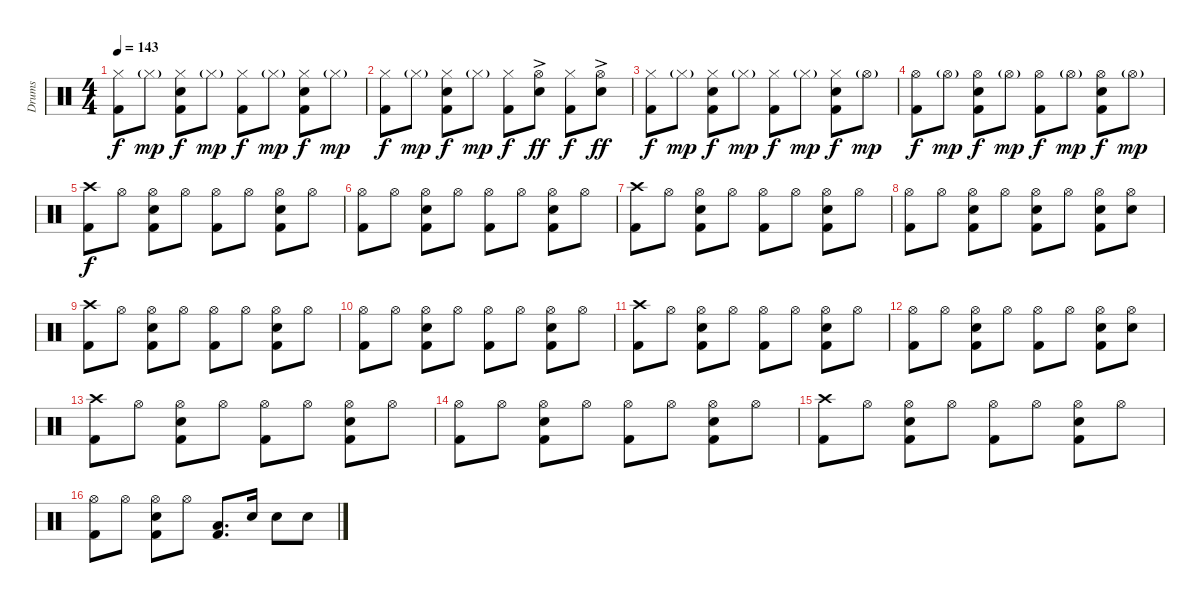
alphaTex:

\track ("Drums" "Drums") {instrument percussion}
\staff {score}
\articulation defaults
\ts (4 4)
\tempo 143
\clef neutral
\ks c
("Hi-Hat (closed)" "Kick (hit) 2").8{dy f} "Hi-Hat (closed)"{g}.8{dy mp} ("Hi-Hat (closed)" "Electric Snare (hit)" "Kick (hit) 2").8{dy f} "Hi-Hat (closed)"{g}.8{dy mp} ("Hi-Hat (closed)" "Kick (hit) 2").8{dy f} "Hi-Hat (closed)"{g}.8{dy mp} ("Hi-Hat (closed)" "Electric Snare (hit)" "Kick (hit) 2").8{dy f} "Hi-Hat (closed)"{g}.8{dy mp} |
("Hi-Hat (closed)" "Kick (hit) 2").8{dy f} "Hi-Hat (closed)"{g}.8{dy mp} ("Hi-Hat (closed)" "Electric Snare (hit)" "Kick (hit) 2").8{dy f} "Hi-Hat (closed)"{g}.8{dy mp} ("Hi-Hat (closed)" "Kick (hit) 2").8{dy f} ("Hi-Hat (open)"{ac} "Electric Snare (hit)").8{dy ff} ("Hi-Hat (closed)" "Kick (hit) 2").8{dy f} ("Hi-Hat (open)"{ac} "Electric Snare (hit)").8{dy ff} |
("Hi-Hat (closed)" "Kick (hit) 2").8{dy f} "Hi-Hat (closed)"{g}.8{dy mp} ("Hi-Hat (closed)" "Electric Snare (hit)" "Kick (hit) 2").8{dy f} "Hi-Hat (closed)"{g}.8{dy mp} ("Hi-Hat (closed)" "Kick (hit) 2").8{dy f} "Hi-Hat (closed)"{g}.8{dy mp} ("Hi-Hat (closed)" "Electric Snare (hit)" "Kick (hit) 2").8{dy f} "Hi-Hat (open)"{g}.8{dy mp} |
("Hi-Hat (open)" "Kick (hit) 2").8{dy f} "Hi-Hat (open)"{g}.8{dy mp} ("Hi-Hat (open)" "Electric Snare (hit)" "Kick (hit) 2").8{dy f} "Hi-Hat (open)"{g}.8{dy mp} ("Hi-Hat (open)" "Kick (hit) 2").8{dy f} "Hi-Hat (open)"{g}.8{dy mp} ("Hi-Hat (open)" "Electric Snare (hit)" "Kick (hit) 2").8{dy f} "Hi-Hat (open)"{g}.8{dy mp} |
("Crash high (hit)" "Kick (hit) 2").8{dy f} "Hi-Hat (open)".8 ("Hi-Hat (open)" "Electric Snare (hit)" "Kick (hit) 2").8 "Hi-Hat (open)".8 ("Hi-Hat (open)" "Kick (hit) 2").8 "Hi-Hat (open)".8 ("Hi-Hat (open)" "Electric Snare (hit)" "Kick (hit) 2").8 "Hi-Hat (open)".8 |
("Hi-Hat (open)" "Kick (hit) 2").8 "Hi-Hat (open)".8 ("Hi-Hat (open)" "Electric Snare (hit)" "Kick (hit) 2").8 "Hi-Hat (open)".8 ("Hi-Hat (open)" "Kick (hit) 2").8 "Hi-Hat (open)".8 ("Hi-Hat (open)" "Electric Snare (hit)" "Kick (hit) 2").8 "Hi-Hat (open)".8 |
("Crash high (hit)" "Kick (hit) 2").8 "Hi-Hat (open)".8 ("Hi-Hat (open)" "Electric Snare (hit)" "Kick (hit) 2").8 "Hi-Hat (open)".8 ("Hi-Hat (open)" "Kick (hit) 2").8 "Hi-Hat (open)".8 ("Hi-Hat (open)" "Electric Snare (hit)" "Kick (hit) 2").8 "Hi-Hat (open)".8 |
("Hi-Hat (open)" "Kick (hit) 2").8 "Hi-Hat (open)".8 ("Hi-Hat (open)" "Electric Snare (hit)" "Kick (hit) 2").8 "Hi-Hat (open)".8 ("Hi-Hat (open)" "Electric Snare (hit)" "Kick (hit) 2").8 "Hi-Hat (open)".8 ("Hi-Hat (open)" "Electric Snare (hit)" "Kick (hit) 2").8 ("Hi-Hat (open)" "Electric Snare (hit)").8 |
("Crash high (hit)" "Kick (hit) 2").8 "Hi-Hat (open)".8 ("Hi-Hat (open)" "Electric Snare (hit)" "Kick (hit) 2").8 "Hi-Hat (open)".8 ("Hi-Hat (open)" "Kick (hit) 2").8 "Hi-Hat (open)".8 ("Hi-Hat (open)" "Electric Snare (hit)" "Kick (hit) 2").8 "Hi-Hat (open)".8 |
("Hi-Hat (open)" "Kick (hit) 2").8 "Hi-Hat (open)".8 ("Hi-Hat (open)" "Electric Snare (hit)" "Kick (hit) 2").8 "Hi-Hat (open)".8 ("Hi-Hat (open)" "Kick (hit) 2").8 "Hi-Hat (open)".8 ("Hi-Hat (open)" "Electric Snare (hit)" "Kick (hit) 2").8 "Hi-Hat (open)".8 |
("Crash high (hit)" "Kick (hit) 2").8 "Hi-Hat (open)".8 ("Hi-Hat (open)" "Electric Snare (hit)" "Kick (hit) 2").8 "Hi-Hat (open)".8 ("Hi-Hat (open)" "Kick (hit) 2").8 "Hi-Hat (open)".8 ("Hi-Hat (open)" "Electric Snare (hit)" "Kick (hit) 2").8 "Hi-Hat (open)".8 |
("Hi-Hat (open)" "Kick (hit) 2").8 "Hi-Hat (open)".8 ("Hi-Hat (open)" "Electric Snare (hit)" "Kick (hit) 2").8 "Hi-Hat (open)".8 ("Hi-Hat (open)" "Kick (hit) 2").8 "Hi-Hat (open)".8 ("Hi-Hat (open)" "Electric Snare (hit)" "Kick (hit) 2").8 ("Hi-Hat (open)" "Electric Snare (hit)").8 |
("Crash high (hit)" "Kick (hit) 2").8 "Hi-Hat (open)".8 ("Hi-Hat (open)" "Electric Snare (hit)" "Kick (hit) 2").8 "Hi-Hat (open)".8 ("Hi-Hat (open)" "Kick (hit) 2").8 "Hi-Hat (open)".8 ("Hi-Hat (open)" "Electric Snare (hit)" "Kick (hit) 2").8 "Hi-Hat (open)".8 |
("Hi-Hat (open)" "Kick (hit) 2").8 "Hi-Hat (open)".8 ("Hi-Hat (open)" "Electric Snare (hit)" "Kick (hit) 2").8 "Hi-Hat (open)".8 ("Hi-Hat (open)" "Kick (hit) 2").8 "Hi-Hat (open)".8 ("Hi-Hat (open)" "Electric Snare (hit)" "Kick (hit) 2").8 "Hi-Hat (open)".8 |
("Crash high (hit)" "Kick (hit) 2").8 "Hi-Hat (open)".8 ("Hi-Hat (open)" "Electric Snare (hit)" "Kick (hit) 2").8 "Hi-Hat (open)".8 ("Hi-Hat (open)" "Kick (hit) 2").8 "Hi-Hat (open)".8 ("Hi-Hat (open)" "Electric Snare (hit)" "Kick (hit) 2").8 "Hi-Hat (open)".8 |
("Hi-Hat (open)" "Kick (hit) 2").8 "Hi-Hat (open)".8 ("Hi-Hat (open)" "Electric Snare (hit)" "Kick (hit) 2").8 "Hi-Hat (open)".8 ("Low Floor Tom (hit)" "Kick (hit) 2").8{d} "Electric Snare (hit)".16 "Electric Snare (hit)".8 "Electric Snare (hit)".8
